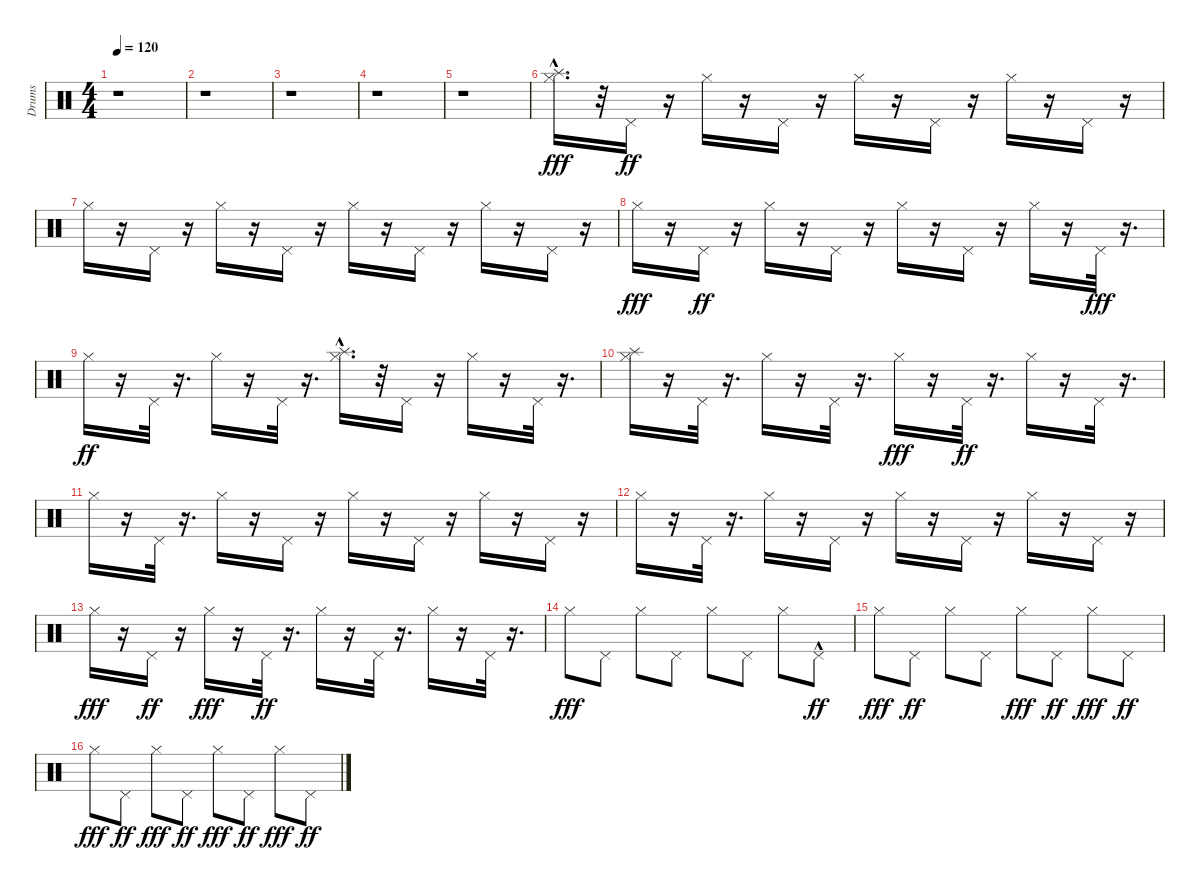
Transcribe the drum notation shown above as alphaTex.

\track ("Drums" "Drums") {instrument percussion}
\staff {score}
\articulation defaults
\ts (4 4)
\tempo 120
\clef neutral
\ks c
r.1{dy fff} |
r.1 |
r.1 |
r.1 |
r.1 |
("Hi-Hat (closed)" "Splash (hit)"{hac}).16{d} r.32 "Pedal Hi-Hat (hit)".16{dy ff} r.16 "Hi-Hat (closed)".16 r.16 "Pedal Hi-Hat (hit)".16 r.16 "Hi-Hat (closed)".16 r.16 "Pedal Hi-Hat (hit)".16 r.16 "Hi-Hat (closed)".16 r.16 "Pedal Hi-Hat (hit)".16 r.16 |
"Hi-Hat (closed)".16 r.16 "Pedal Hi-Hat (hit)".16 r.16 "Hi-Hat (closed)".16 r.16 "Pedal Hi-Hat (hit)".16 r.16 "Hi-Hat (closed)".16 r.16 "Pedal Hi-Hat (hit)".16 r.16 "Hi-Hat (closed)".16 r.16 "Pedal Hi-Hat (hit)".16 r.16 |
"Hi-Hat (closed)".16{dy fff} r.16 "Pedal Hi-Hat (hit)".16{dy ff} r.16 "Hi-Hat (closed)".16 r.16 "Pedal Hi-Hat (hit)".16 r.16 "Hi-Hat (closed)".16 r.16 "Pedal Hi-Hat (hit)".16 r.16 "Hi-Hat (closed)".16 r.16 "Pedal Hi-Hat (hit)".32{dy fff} r.16{d} |
"Hi-Hat (closed)".16{dy ff} r.16 "Pedal Hi-Hat (hit)".32 r.16{d} "Hi-Hat (closed)".16 r.16 "Pedal Hi-Hat (hit)".32 r.16{d} ("Hi-Hat (closed)" "Splash (hit)"{hac}).16{d} r.32 "Pedal Hi-Hat (hit)".16 r.16 "Hi-Hat (closed)".16 r.16 "Pedal Hi-Hat (hit)".32 r.16{d} |
("Hi-Hat (closed)" "Splash (hit)").16 r.16 "Pedal Hi-Hat (hit)".32 r.16{d} "Hi-Hat (closed)".16 r.16 "Pedal Hi-Hat (hit)".32 r.16{d} "Hi-Hat (closed)".16{dy fff} r.16 "Pedal Hi-Hat (hit)".32{dy ff} r.16{d} "Hi-Hat (closed)".16 r.16 "Pedal Hi-Hat (hit)".32 r.16{d} |
"Hi-Hat (closed)".16 r.16 "Pedal Hi-Hat (hit)".32 r.16{d} "Hi-Hat (closed)".16 r.16 "Pedal Hi-Hat (hit)".16 r.16 "Hi-Hat (closed)".16 r.16 "Pedal Hi-Hat (hit)".16 r.16 "Hi-Hat (closed)".16 r.16 "Pedal Hi-Hat (hit)".16 r.16 |
"Hi-Hat (closed)".16 r.16 "Pedal Hi-Hat (hit)".32 r.16{d} "Hi-Hat (closed)".16 r.16 "Pedal Hi-Hat (hit)".16 r.16 "Hi-Hat (closed)".16 r.16 "Pedal Hi-Hat (hit)".16 r.16 "Hi-Hat (closed)".16 r.16 "Pedal Hi-Hat (hit)".16 r.16 |
"Hi-Hat (closed)".16{dy fff} r.16 "Pedal Hi-Hat (hit)".16{dy ff} r.16 "Hi-Hat (closed)".16{dy fff} r.16 "Pedal Hi-Hat (hit)".32{dy ff} r.16{d} "Hi-Hat (closed)".16 r.16 "Pedal Hi-Hat (hit)".32 r.16{d} "Hi-Hat (closed)".16 r.16 "Pedal Hi-Hat (hit)".32 r.16{d} |
"Hi-Hat (closed)".8{dy fff} "Pedal Hi-Hat (hit)".8 "Hi-Hat (closed)".8 "Pedal Hi-Hat (hit)".8 "Hi-Hat (closed)".8 "Pedal Hi-Hat (hit)".8 "Hi-Hat (closed)".8 "Pedal Hi-Hat (hit)"{hac}.8{dy ff} |
"Hi-Hat (closed)".8{dy fff} "Pedal Hi-Hat (hit)".8{dy ff} "Hi-Hat (closed)".8 "Pedal Hi-Hat (hit)".8 "Hi-Hat (closed)".8{dy fff} "Pedal Hi-Hat (hit)".8{dy ff} "Hi-Hat (closed)".8{dy fff} "Pedal Hi-Hat (hit)".8{dy ff} |
"Hi-Hat (closed)".8{dy fff} "Pedal Hi-Hat (hit)".8{dy ff} "Hi-Hat (closed)".8{dy fff} "Pedal Hi-Hat (hit)".8{dy ff} "Hi-Hat (closed)".8{dy fff} "Pedal Hi-Hat (hit)".8{dy ff} "Hi-Hat (closed)".8{dy fff} "Pedal Hi-Hat (hit)".8{dy ff}
